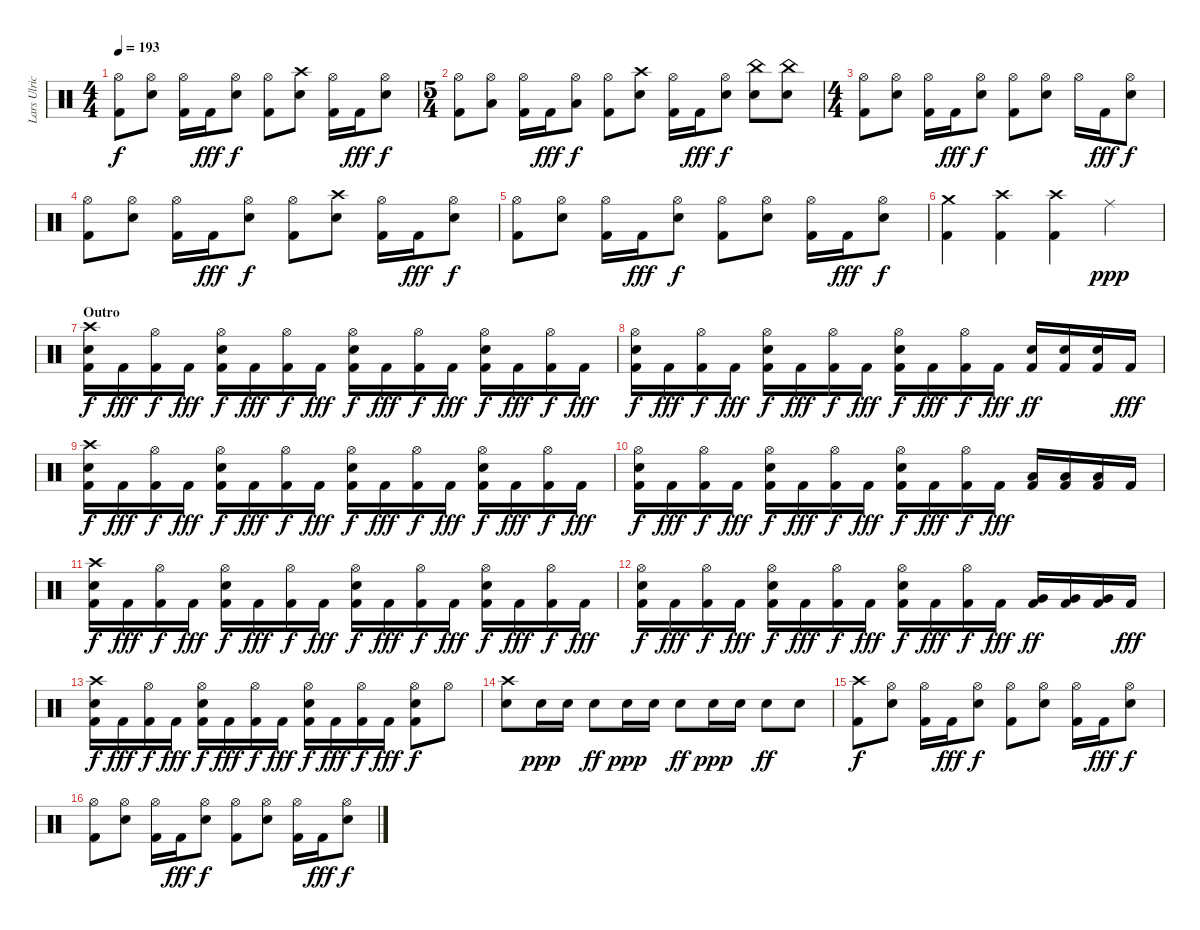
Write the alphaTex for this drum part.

\track ("Lars Ulrich - Drums" "Lars Ulric") {instrument percussion}
\staff {score}
\articulation defaults
\ts (4 4)
\tempo 193
\clef neutral
\ks c
("Hi-Hat (open)" "Kick (hit) 2").8{dy f} ("Hi-Hat (open)" "Snare (hit) 2").8 ("Hi-Hat (open)" "Kick (hit) 2").16 "Kick (hit) 2".16{dy fff} ("Hi-Hat (open)" "Snare (hit) 2").8{dy f} ("Hi-Hat (open)" "Kick (hit) 2").8 ("Crash high (hit)" "Snare (hit) 2").8 ("Hi-Hat (open)" "Kick (hit) 2").16 "Kick (hit) 2".16{dy fff} ("Hi-Hat (open)" "Snare (hit) 2").8{dy f} |
\ts (5 4)
("Hi-Hat (open)" "Kick (hit) 2").8 ("Hi-Hat (open)" "Low Tom (hit)").8 ("Hi-Hat (open)" "Kick (hit) 2").16 "Kick (hit) 2".16{dy fff} ("Hi-Hat (open)" "Low Tom (hit)").8{dy f} ("Hi-Hat (open)" "Kick (hit) 2").8 ("Crash high (hit)" "Snare (hit) 2").8 ("Hi-Hat (open)" "Kick (hit) 2").16 "Kick (hit) 2".16{dy fff} ("Hi-Hat (open)" "Snare (hit) 2").8{dy f} ("China (hit)" "Snare (hit) 2").8 ("China (hit)" "Snare (hit) 2").8 |
\ts (4 4)
("Hi-Hat (open)" "Kick (hit) 2").8 ("Hi-Hat (open)" "Snare (hit) 2").8 ("Hi-Hat (open)" "Kick (hit) 2").16 "Kick (hit) 2".16{dy fff} ("Hi-Hat (open)" "Snare (hit) 2").8{dy f} ("Hi-Hat (open)" "Kick (hit) 2").8 ("Hi-Hat (open)" "Snare (hit) 2").8 "Hi-Hat (open)".16 "Kick (hit) 2".16{dy fff} ("Hi-Hat (open)" "Snare (hit) 2").8{dy f} |
("Hi-Hat (open)" "Kick (hit) 2").8 ("Hi-Hat (open)" "Snare (hit) 2").8 ("Hi-Hat (open)" "Kick (hit) 2").16 "Kick (hit) 2".16{dy fff} ("Hi-Hat (open)" "Snare (hit) 2").8{dy f} ("Hi-Hat (open)" "Kick (hit) 2").8 ("Crash high (hit)" "Snare (hit) 2").8 ("Hi-Hat (open)" "Kick (hit) 2").16 "Kick (hit) 2".16{dy fff} ("Hi-Hat (open)" "Snare (hit) 2").8{dy f} |
("Hi-Hat (open)" "Kick (hit) 2").8 ("Hi-Hat (open)" "Snare (hit) 2").8 ("Hi-Hat (open)" "Kick (hit) 2").16 "Kick (hit) 2".16{dy fff} ("Hi-Hat (open)" "Snare (hit) 2").8{dy f} ("Hi-Hat (open)" "Kick (hit) 2").8 ("Hi-Hat (open)" "Snare (hit) 2").8 ("Hi-Hat (open)" "Kick (hit) 2").16 "Kick (hit) 2".16{dy fff} ("Hi-Hat (open)" "Snare (hit) 2").8{dy f} |
("Crash medium (hit)" "Kick (hit) 2").4 ("Crash high (hit)" "Kick (hit) 2").4 ("Crash high (hit)" "Kick (hit) 2").4 "Ride (middle)".4{dy ppp} |
\section ("" "Outro")
("Crash high (hit)" "Snare (hit) 2" "Kick (hit) 2").16{dy f} "Kick (hit) 2".16{dy fff} ("Hi-Hat (open)" "Kick (hit) 2").16{dy f} "Kick (hit) 2".16{dy fff} ("Hi-Hat (open)" "Snare (hit) 2" "Kick (hit) 2").16{dy f} "Kick (hit) 2".16{dy fff} ("Hi-Hat (open)" "Kick (hit) 2").16{dy f} "Kick (hit) 2".16{dy fff} ("Hi-Hat (open)" "Snare (hit) 2" "Kick (hit) 2").16{dy f} "Kick (hit) 2".16{dy fff} ("Hi-Hat (open)" "Kick (hit) 2").16{dy f} "Kick (hit) 2".16{dy fff} ("Hi-Hat (open)" "Snare (hit) 2" "Kick (hit) 2").16{dy f} "Kick (hit) 2".16{dy fff} ("Hi-Hat (open)" "Kick (hit) 2").16{dy f} "Kick (hit) 2".16{dy fff} |
("Hi-Hat (open)" "Snare (hit) 2" "Kick (hit) 2").16{dy f} "Kick (hit) 2".16{dy fff} ("Hi-Hat (open)" "Kick (hit) 2").16{dy f} "Kick (hit) 2".16{dy fff} ("Hi-Hat (open)" "Snare (hit) 2" "Kick (hit) 2").16{dy f} "Kick (hit) 2".16{dy fff} ("Hi-Hat (open)" "Kick (hit) 2").16{dy f} "Kick (hit) 2".16{dy fff} ("Hi-Hat (open)" "Snare (hit) 2" "Kick (hit) 2").16{dy f} "Kick (hit) 2".16{dy fff} ("Hi-Hat (open)" "Kick (hit) 2").16{dy f} "Kick (hit) 2".16{dy fff} ("Snare (hit) 2" "Kick (hit) 2").16{dy ff} ("Snare (hit) 2" "Kick (hit) 2").16 ("Snare (hit) 2" "Kick (hit) 2").16 "Kick (hit) 2".16{dy fff} |
("Crash high (hit)" "Snare (hit) 2" "Kick (hit) 2").16{dy f} "Kick (hit) 2".16{dy fff} ("Hi-Hat (open)" "Kick (hit) 2").16{dy f} "Kick (hit) 2".16{dy fff} ("Hi-Hat (open)" "Snare (hit) 2" "Kick (hit) 2").16{dy f} "Kick (hit) 2".16{dy fff} ("Hi-Hat (open)" "Kick (hit) 2").16{dy f} "Kick (hit) 2".16{dy fff} ("Hi-Hat (open)" "Snare (hit) 2" "Kick (hit) 2").16{dy f} "Kick (hit) 2".16{dy fff} ("Hi-Hat (open)" "Kick (hit) 2").16{dy f} "Kick (hit) 2".16{dy fff} ("Hi-Hat (open)" "Snare (hit) 2" "Kick (hit) 2").16{dy f} "Kick (hit) 2".16{dy fff} ("Hi-Hat (open)" "Kick (hit) 2").16{dy f} "Kick (hit) 2".16{dy fff} |
("Hi-Hat (open)" "Snare (hit) 2" "Kick (hit) 2").16{dy f} "Kick (hit) 2".16{dy fff} ("Hi-Hat (open)" "Kick (hit) 2").16{dy f} "Kick (hit) 2".16{dy fff} ("Hi-Hat (open)" "Snare (hit) 2" "Kick (hit) 2").16{dy f} "Kick (hit) 2".16{dy fff} ("Hi-Hat (open)" "Kick (hit) 2").16{dy f} "Kick (hit) 2".16{dy fff} ("Hi-Hat (open)" "Snare (hit) 2" "Kick (hit) 2").16{dy f} "Kick (hit) 2".16{dy fff} ("Hi-Hat (open)" "Kick (hit) 2").16{dy f} "Kick (hit) 2".16{dy fff} ("Low Tom (hit)" "Kick (hit) 2").16 ("Low Tom (hit)" "Kick (hit) 2").16 ("Low Tom (hit)" "Kick (hit) 2").16 "Kick (hit) 2".16 |
("Crash high (hit)" "Snare (hit) 2" "Kick (hit) 2").16{dy f} "Kick (hit) 2".16{dy fff} ("Hi-Hat (open)" "Kick (hit) 2").16{dy f} "Kick (hit) 2".16{dy fff} ("Hi-Hat (open)" "Snare (hit) 2" "Kick (hit) 2").16{dy f} "Kick (hit) 2".16{dy fff} ("Hi-Hat (open)" "Kick (hit) 2").16{dy f} "Kick (hit) 2".16{dy fff} ("Hi-Hat (open)" "Snare (hit) 2" "Kick (hit) 2").16{dy f} "Kick (hit) 2".16{dy fff} ("Hi-Hat (open)" "Kick (hit) 2").16{dy f} "Kick (hit) 2".16{dy fff} ("Hi-Hat (open)" "Snare (hit) 2" "Kick (hit) 2").16{dy f} "Kick (hit) 2".16{dy fff} ("Hi-Hat (open)" "Kick (hit) 2").16{dy f} "Kick (hit) 2".16{dy fff} |
("Hi-Hat (open)" "Snare (hit) 2" "Kick (hit) 2").16{dy f} "Kick (hit) 2".16{dy fff} ("Hi-Hat (open)" "Kick (hit) 2").16{dy f} "Kick (hit) 2".16{dy fff} ("Hi-Hat (open)" "Snare (hit) 2" "Kick (hit) 2").16{dy f} "Kick (hit) 2".16{dy fff} ("Hi-Hat (open)" "Kick (hit) 2").16{dy f} "Kick (hit) 2".16{dy fff} ("Hi-Hat (open)" "Snare (hit) 2" "Kick (hit) 2").16{dy f} "Kick (hit) 2".16{dy fff} ("Hi-Hat (open)" "Kick (hit) 2").16{dy f} "Kick (hit) 2".16{dy fff} ("Very Low Tom (hit)" "Kick (hit) 2").16{dy ff} ("Very Low Tom (hit)" "Kick (hit) 2").16 ("Very Low Tom (hit)" "Kick (hit) 2").16 "Kick (hit) 2".16{dy fff} |
("Crash high (hit)" "Snare (hit) 2" "Kick (hit) 2").16{dy f} "Kick (hit) 2".16{dy fff} ("Hi-Hat (open)" "Kick (hit) 2").16{dy f} "Kick (hit) 2".16{dy fff} ("Hi-Hat (open)" "Snare (hit) 2" "Kick (hit) 2").16{dy f} "Kick (hit) 2".16{dy fff} ("Hi-Hat (open)" "Kick (hit) 2").16{dy f} "Kick (hit) 2".16{dy fff} ("Hi-Hat (open)" "Snare (hit) 2" "Kick (hit) 2").16{dy f} "Kick (hit) 2".16{dy fff} ("Hi-Hat (open)" "Kick (hit) 2").16{dy f} "Kick (hit) 2".16{dy fff} ("Hi-Hat (open)" "Snare (hit) 2" "Kick (hit) 2").8{dy f} "Hi-Hat (open)".8 |
("Crash high (hit)" "Snare (hit) 2").8 "Snare (hit) 2".16{dy ppp} "Snare (hit) 2".16 "Snare (hit) 2".8{dy ff} "Snare (hit) 2".16{dy ppp} "Snare (hit) 2".16 "Snare (hit) 2".8{dy ff} "Snare (hit) 2".16{dy ppp} "Snare (hit) 2".16 "Snare (hit) 2".8{dy ff} "Snare (hit) 2".8 |
("Crash high (hit)" "Kick (hit) 2").8{dy f} ("Hi-Hat (open)" "Snare (hit) 2").8 ("Hi-Hat (open)" "Kick (hit) 2").16 "Kick (hit) 2".16{dy fff} ("Hi-Hat (open)" "Snare (hit) 2").8{dy f} ("Hi-Hat (open)" "Kick (hit) 2").8 ("Hi-Hat (open)" "Snare (hit) 2").8 ("Hi-Hat (open)" "Kick (hit) 2").16 "Kick (hit) 2".16{dy fff} ("Hi-Hat (open)" "Snare (hit) 2").8{dy f} |
("Hi-Hat (open)" "Kick (hit) 2").8 ("Hi-Hat (open)" "Snare (hit) 2").8 ("Hi-Hat (open)" "Kick (hit) 2").16 "Kick (hit) 2".16{dy fff} ("Hi-Hat (open)" "Snare (hit) 2").8{dy f} ("Hi-Hat (open)" "Kick (hit) 2").8 ("Hi-Hat (open)" "Snare (hit) 2").8 ("Hi-Hat (open)" "Kick (hit) 2").16 "Kick (hit) 2".16{dy fff} ("Hi-Hat (open)" "Snare (hit) 2").8{dy f}
